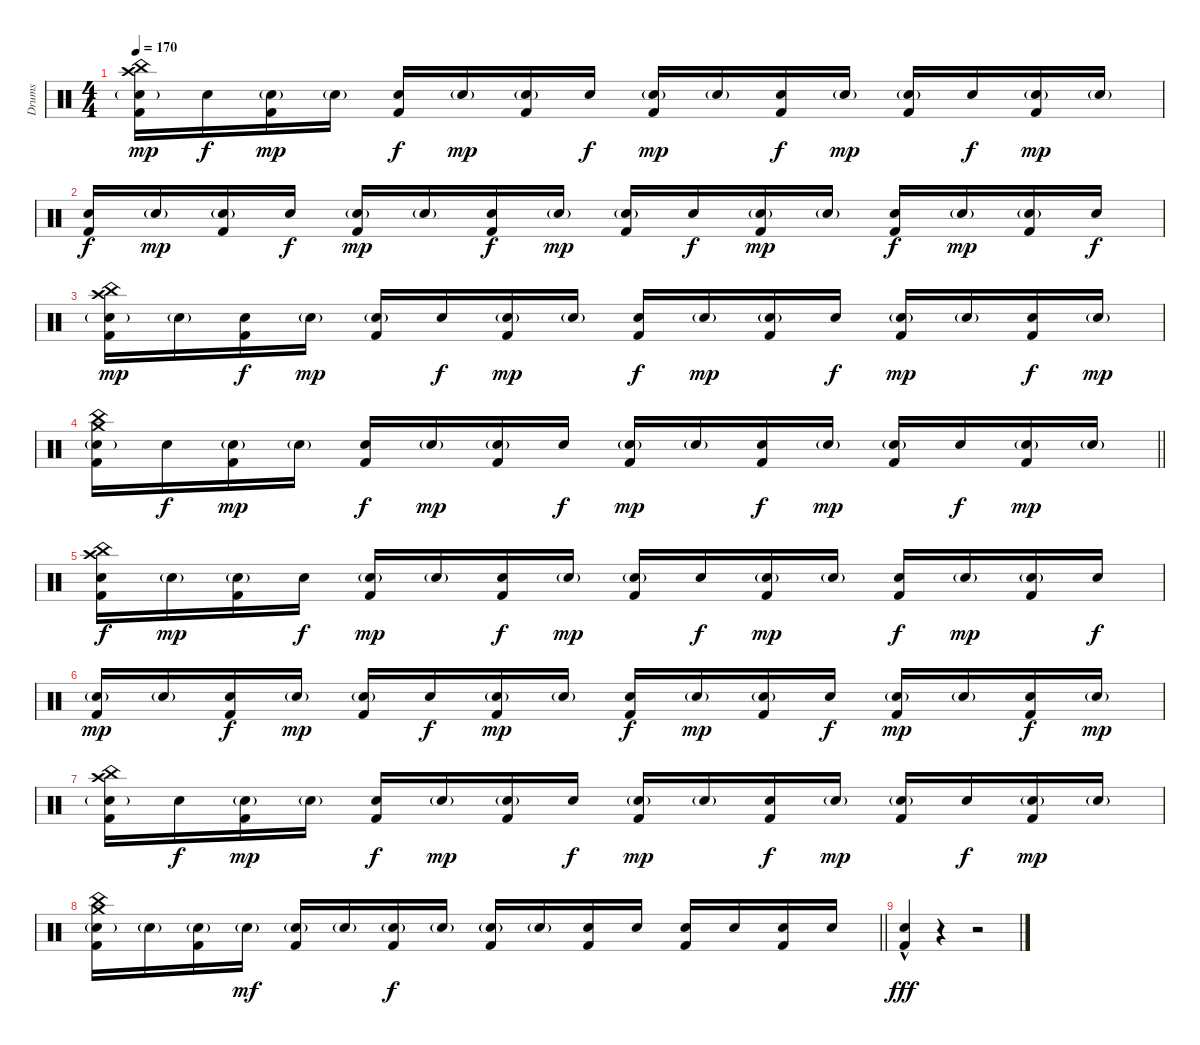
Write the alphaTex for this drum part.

\track ("Drums" "Drums") {instrument percussion}
\staff {score}
\articulation defaults
\ts (4 4)
\tempo 170
\clef neutral
\ks c
("Crash high (hit)" "China (hit)" "Electric Snare (hit)"{g} "Kick (hit) 2").16{dy mp} "Electric Snare (hit)".16{dy f} ("Electric Snare (hit)"{g} "Kick (hit) 2").16{dy mp} "Electric Snare (hit)"{g}.16 ("Electric Snare (hit)" "Kick (hit) 2").16{dy f} "Electric Snare (hit)"{g}.16{dy mp} ("Electric Snare (hit)"{g} "Kick (hit) 2").16 "Electric Snare (hit)".16{dy f} ("Electric Snare (hit)"{g} "Kick (hit) 2").16{dy mp} "Electric Snare (hit)"{g}.16 ("Electric Snare (hit)" "Kick (hit) 2").16{dy f} "Electric Snare (hit)"{g}.16{dy mp} ("Electric Snare (hit)"{g} "Kick (hit) 2").16 "Electric Snare (hit)".16{dy f} ("Electric Snare (hit)"{g} "Kick (hit) 2").16{dy mp} "Electric Snare (hit)"{g}.16 |
("Electric Snare (hit)" "Kick (hit) 2").16{dy f} "Electric Snare (hit)"{g}.16{dy mp} ("Electric Snare (hit)"{g} "Kick (hit) 2").16 "Electric Snare (hit)".16{dy f} ("Electric Snare (hit)"{g} "Kick (hit) 2").16{dy mp} "Electric Snare (hit)"{g}.16 ("Electric Snare (hit)" "Kick (hit) 2").16{dy f} "Electric Snare (hit)"{g}.16{dy mp} ("Electric Snare (hit)"{g} "Kick (hit) 2").16 "Electric Snare (hit)".16{dy f} ("Electric Snare (hit)"{g} "Kick (hit) 2").16{dy mp} "Electric Snare (hit)"{g}.16 ("Electric Snare (hit)" "Kick (hit) 2").16{dy f} "Electric Snare (hit)"{g}.16{dy mp} ("Electric Snare (hit)"{g} "Kick (hit) 2").16 "Electric Snare (hit)".16{dy f} |
("Crash high (hit)" "China (hit)" "Electric Snare (hit)"{g} "Kick (hit) 2").16{dy mp} "Electric Snare (hit)"{g}.16 ("Electric Snare (hit)" "Kick (hit) 2").16{dy f} "Electric Snare (hit)"{g}.16{dy mp} ("Electric Snare (hit)"{g} "Kick (hit) 2").16 "Electric Snare (hit)".16{dy f} ("Electric Snare (hit)"{g} "Kick (hit) 2").16{dy mp} "Electric Snare (hit)"{g}.16 ("Electric Snare (hit)" "Kick (hit) 2").16{dy f} "Electric Snare (hit)"{g}.16{dy mp} ("Electric Snare (hit)"{g} "Kick (hit) 2").16 "Electric Snare (hit)".16{dy f} ("Electric Snare (hit)"{g} "Kick (hit) 2").16{dy mp} "Electric Snare (hit)"{g}.16 ("Electric Snare (hit)" "Kick (hit) 2").16{dy f} "Electric Snare (hit)"{g}.16{dy mp} |
\barLineRight lightlight
("Crash medium (hit)" "China (hit)" "Electric Snare (hit)"{g} "Kick (hit) 2").16 "Electric Snare (hit)".16{dy f} ("Electric Snare (hit)"{g} "Kick (hit) 2").16{dy mp} "Electric Snare (hit)"{g}.16 ("Electric Snare (hit)" "Kick (hit) 2").16{dy f} "Electric Snare (hit)"{g}.16{dy mp} ("Electric Snare (hit)"{g} "Kick (hit) 2").16 "Electric Snare (hit)".16{dy f} ("Electric Snare (hit)"{g} "Kick (hit) 2").16{dy mp} "Electric Snare (hit)"{g}.16 ("Electric Snare (hit)" "Kick (hit) 2").16{dy f} "Electric Snare (hit)"{g}.16{dy mp} ("Electric Snare (hit)"{g} "Kick (hit) 2").16 "Electric Snare (hit)".16{dy f} ("Electric Snare (hit)"{g} "Kick (hit) 2").16{dy mp} "Electric Snare (hit)"{g}.16 |
("Crash high (hit)" "China (hit)" "Electric Snare (hit)" "Kick (hit) 2").16{dy f} "Electric Snare (hit)"{g}.16{dy mp} ("Electric Snare (hit)"{g} "Kick (hit) 2").16 "Electric Snare (hit)".16{dy f} ("Electric Snare (hit)"{g} "Kick (hit) 2").16{dy mp} "Electric Snare (hit)"{g}.16 ("Electric Snare (hit)" "Kick (hit) 2").16{dy f} "Electric Snare (hit)"{g}.16{dy mp} ("Electric Snare (hit)"{g} "Kick (hit) 2").16 "Electric Snare (hit)".16{dy f} ("Electric Snare (hit)"{g} "Kick (hit) 2").16{dy mp} "Electric Snare (hit)"{g}.16 ("Electric Snare (hit)" "Kick (hit) 2").16{dy f} "Electric Snare (hit)"{g}.16{dy mp} ("Electric Snare (hit)"{g} "Kick (hit) 2").16 "Electric Snare (hit)".16{dy f} |
("Electric Snare (hit)"{g} "Kick (hit) 2").16{dy mp} "Electric Snare (hit)"{g}.16 ("Electric Snare (hit)" "Kick (hit) 2").16{dy f} "Electric Snare (hit)"{g}.16{dy mp} ("Electric Snare (hit)"{g} "Kick (hit) 2").16 "Electric Snare (hit)".16{dy f} ("Electric Snare (hit)"{g} "Kick (hit) 2").16{dy mp} "Electric Snare (hit)"{g}.16 ("Electric Snare (hit)" "Kick (hit) 2").16{dy f} "Electric Snare (hit)"{g}.16{dy mp} ("Electric Snare (hit)"{g} "Kick (hit) 2").16 "Electric Snare (hit)".16{dy f} ("Electric Snare (hit)"{g} "Kick (hit) 2").16{dy mp} "Electric Snare (hit)"{g}.16 ("Electric Snare (hit)" "Kick (hit) 2").16{dy f} "Electric Snare (hit)"{g}.16{dy mp} |
("Crash high (hit)" "China (hit)" "Electric Snare (hit)"{g} "Kick (hit) 2").16 "Electric Snare (hit)".16{dy f} ("Electric Snare (hit)"{g} "Kick (hit) 2").16{dy mp} "Electric Snare (hit)"{g}.16 ("Electric Snare (hit)" "Kick (hit) 2").16{dy f} "Electric Snare (hit)"{g}.16{dy mp} ("Electric Snare (hit)"{g} "Kick (hit) 2").16 "Electric Snare (hit)".16{dy f} ("Electric Snare (hit)"{g} "Kick (hit) 2").16{dy mp} "Electric Snare (hit)"{g}.16 ("Electric Snare (hit)" "Kick (hit) 2").16{dy f} "Electric Snare (hit)"{g}.16{dy mp} ("Electric Snare (hit)"{g} "Kick (hit) 2").16 "Electric Snare (hit)".16{dy f} ("Electric Snare (hit)"{g} "Kick (hit) 2").16{dy mp} "Electric Snare (hit)"{g}.16 |
\barLineRight lightlight
("Crash medium (hit)" "China (hit)" "Electric Snare (hit)"{g} "Kick (hit) 2").16 "Electric Snare (hit)"{g}.16 ("Electric Snare (hit)"{g} "Kick (hit) 2").16 "Electric Snare (hit)"{g}.16{dy mf} ("Electric Snare (hit)"{g} "Kick (hit) 2").16 "Electric Snare (hit)"{g}.16 ("Electric Snare (hit)"{g} "Kick (hit) 2").16{dy f} "Electric Snare (hit)"{g}.16 ("Electric Snare (hit)"{g} "Kick (hit) 2").16 "Electric Snare (hit)"{g}.16 ("Electric Snare (hit)" "Kick (hit) 2").16 "Electric Snare (hit)".16 ("Electric Snare (hit)" "Kick (hit) 2").16 "Electric Snare (hit)".16 ("Electric Snare (hit)" "Kick (hit) 2").16 "Electric Snare (hit)".16 |
("Electric Snare (hit)"{hac} "Kick (hit) 2").4{dy fff} r.4 r.2
